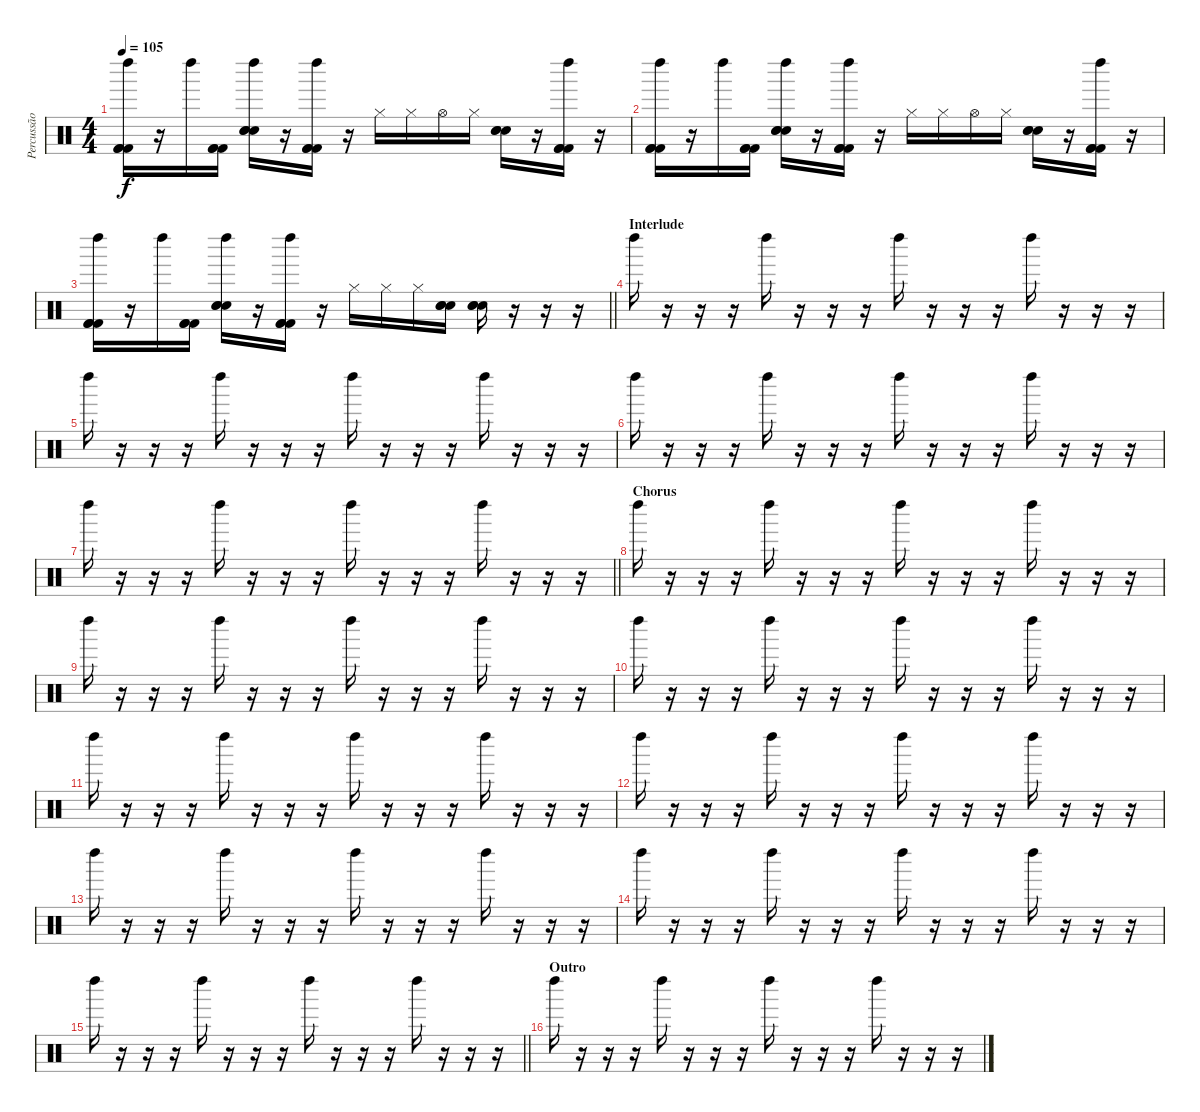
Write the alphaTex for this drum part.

\track ("Percussão" "Percussão") {instrument percussion}
\staff {score}
\articulation defaults
\ts (4 4)
\tempo 105
\clef neutral
\ks c
("Left Maraca (hit)" "Kick (hit) 2" "Kick (hit) 2" "Kick (hit) 2").16{dy f} r.16 "Left Maraca (hit)".16 ("Kick (hit) 2" "Kick (hit) 2" "Kick (hit) 2").16 ("Left Maraca (hit)" "Electric Snare (hit)" "Electric Snare (hit)" "Electric Snare (hit)").16 r.16 ("Left Maraca (hit)" "Kick (hit) 2" "Kick (hit) 2" "Kick (hit) 2").16 r.16 "Hi-Hat (closed)".16 "Hi-Hat (closed)".16 "Hi-Hat (open)".16 "Hi-Hat (closed)".16 ("Electric Snare (hit)" "Electric Snare (hit)" "Electric Snare (hit)").16 r.16 ("Left Maraca (hit)" "Kick (hit) 2" "Kick (hit) 2" "Kick (hit) 2").16 r.16 |
("Left Maraca (hit)" "Kick (hit) 2" "Kick (hit) 2" "Kick (hit) 2").16 r.16 "Left Maraca (hit)".16 ("Kick (hit) 2" "Kick (hit) 2" "Kick (hit) 2").16 ("Left Maraca (hit)" "Electric Snare (hit)" "Electric Snare (hit)" "Electric Snare (hit)").16 r.16 ("Left Maraca (hit)" "Kick (hit) 2" "Kick (hit) 2" "Kick (hit) 2").16 r.16 "Hi-Hat (closed)".16 "Hi-Hat (closed)".16 "Hi-Hat (open)".16 "Hi-Hat (closed)".16 ("Electric Snare (hit)" "Electric Snare (hit)" "Electric Snare (hit)").16 r.16 ("Left Maraca (hit)" "Kick (hit) 2" "Kick (hit) 2" "Kick (hit) 2").16 r.16 |
\barLineRight lightlight
("Left Maraca (hit)" "Kick (hit) 2" "Kick (hit) 2" "Kick (hit) 2").16 r.16 "Left Maraca (hit)".16 ("Kick (hit) 2" "Kick (hit) 2" "Kick (hit) 2").16 ("Left Maraca (hit)" "Electric Snare (hit)" "Electric Snare (hit)" "Electric Snare (hit)").16 r.16 ("Left Maraca (hit)" "Kick (hit) 2" "Kick (hit) 2" "Kick (hit) 2").16 r.16 "Hi-Hat (closed)".16 "Hi-Hat (closed)".16 "Hi-Hat (closed)".16 ("Electric Snare (hit)" "Electric Snare (hit)" "Electric Snare (hit)").16 ("Electric Snare (hit)" "Electric Snare (hit)" "Electric Snare (hit)").16 r.16 r.16 r.16 |
\section ("" "Interlude")
"Left Maraca (hit)".16 r.16 r.16 r.16 "Left Maraca (hit)".16 r.16 r.16 r.16 "Left Maraca (hit)".16 r.16 r.16 r.16 "Left Maraca (hit)".16 r.16 r.16 r.16 |
"Left Maraca (hit)".16 r.16 r.16 r.16 "Left Maraca (hit)".16 r.16 r.16 r.16 "Left Maraca (hit)".16 r.16 r.16 r.16 "Left Maraca (hit)".16 r.16 r.16 r.16 |
"Left Maraca (hit)".16 r.16 r.16 r.16 "Left Maraca (hit)".16 r.16 r.16 r.16 "Left Maraca (hit)".16 r.16 r.16 r.16 "Left Maraca (hit)".16 r.16 r.16 r.16 |
\barLineRight lightlight "Left Maraca (hit)".16
r.16 r.16 r.16 "Left Maraca (hit)".16 r.16 r.16 r.16 "Left Maraca (hit)".16 r.16 r.16 r.16 "Left Maraca (hit)".16 r.16 r.16 r.16 |
\section ("" "Chorus")
"Left Maraca (hit)".16 r.16 r.16 r.16 "Left Maraca (hit)".16 r.16 r.16 r.16 "Left Maraca (hit)".16 r.16 r.16 r.16 "Left Maraca (hit)".16 r.16 r.16 r.16 |
"Left Maraca (hit)".16 r.16 r.16 r.16 "Left Maraca (hit)".16 r.16 r.16 r.16 "Left Maraca (hit)".16 r.16 r.16 r.16 "Left Maraca (hit)".16 r.16 r.16 r.16 |
"Left Maraca (hit)".16 r.16 r.16 r.16 "Left Maraca (hit)".16 r.16 r.16 r.16 "Left Maraca (hit)".16 r.16 r.16 r.16 "Left Maraca (hit)".16 r.16 r.16 r.16 |
"Left Maraca (hit)".16 r.16 r.16 r.16 "Left Maraca (hit)".16 r.16 r.16 r.16 "Left Maraca (hit)".16 r.16 r.16 r.16 "Left Maraca (hit)".16 r.16 r.16 r.16 |
"Left Maraca (hit)".16 r.16 r.16 r.16 "Left Maraca (hit)".16 r.16 r.16 r.16 "Left Maraca (hit)".16 r.16 r.16 r.16 "Left Maraca (hit)".16 r.16 r.16 r.16 |
"Left Maraca (hit)".16 r.16 r.16 r.16 "Left Maraca (hit)".16 r.16 r.16 r.16 "Left Maraca (hit)".16 r.16 r.16 r.16 "Left Maraca (hit)".16 r.16 r.16 r.16 |
"Left Maraca (hit)".16 r.16 r.16 r.16 "Left Maraca (hit)".16 r.16 r.16 r.16 "Left Maraca (hit)".16 r.16 r.16 r.16 "Left Maraca (hit)".16 r.16 r.16 r.16 |
\barLineRight lightlight "Left Maraca (hit)".16
r.16 r.16 r.16 "Left Maraca (hit)".16 r.16 r.16 r.16 "Left Maraca (hit)".16 r.16 r.16 r.16 "Left Maraca (hit)".16 r.16 r.16 r.16 |
\section ("" "Outro")
"Left Maraca (hit)".16 r.16 r.16 r.16 "Left Maraca (hit)".16 r.16 r.16 r.16 "Left Maraca (hit)".16 r.16 r.16 r.16 "Left Maraca (hit)".16 r.16 r.16 r.16
